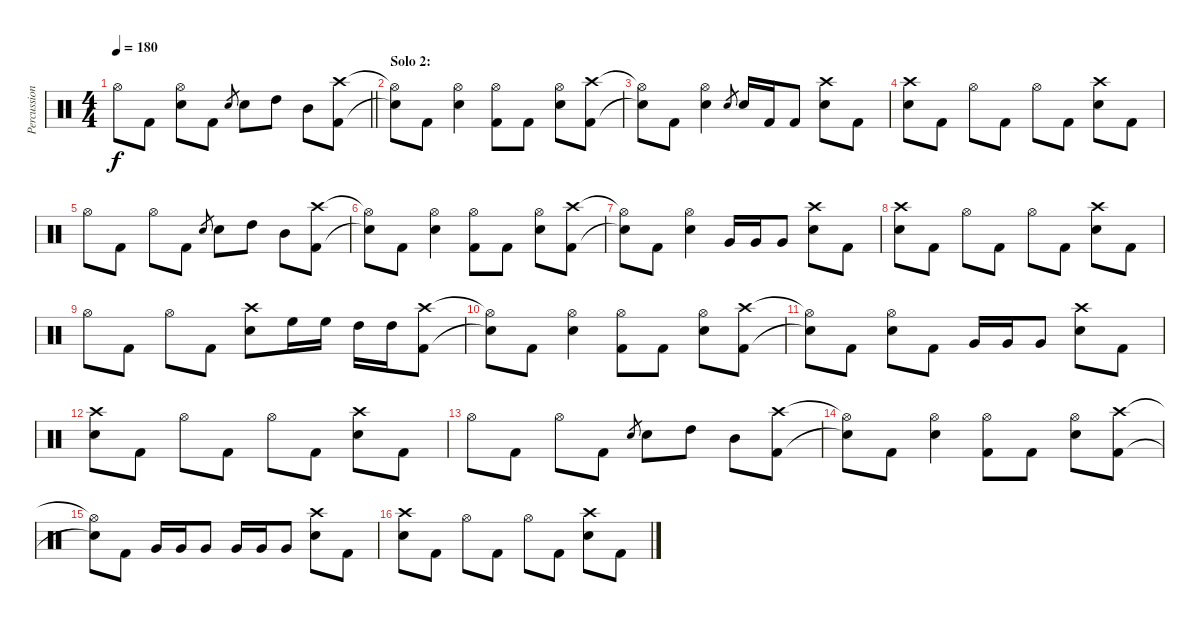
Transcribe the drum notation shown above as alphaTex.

\track ("Percussion" "Percussion") {instrument percussion}
\staff {score}
\articulation defaults
\ts (4 4)
\tempo 180
\clef neutral
\barLineRight lightlight
\ks c "Hi-Hat (open)".8{dy f} "Kick (hit) 2".8
("Hi-Hat (open)" "Electric Snare (hit)").8 "Kick (hit) 2".8 "Electric Snare (hit)".8{gr} "Electric Snare (hit)".8 "High Tom (hit)".8 "Mid Tom (hit)".8 ("Crash high (hit)" "Kick (hit) 2").8 |
\section ("" "Solo 2:")
("Hi-Hat (open)"{t} "Snare (hit)"{t}).8 "Kick (hit) 2".8 ("Hi-Hat (open)" "Electric Snare (hit)").4 ("Hi-Hat (open)" "Kick (hit) 2").8 "Kick (hit) 2".8 ("Hi-Hat (open)" "Electric Snare (hit)").8 ("Crash high (hit)" "Kick (hit) 2").8 |
("Hi-Hat (open)"{t} "Snare (hit)"{t}).8 "Kick (hit) 2".8 ("Hi-Hat (open)" "Electric Snare (hit)").4 "Electric Snare (hit)".8{gr} "Electric Snare (hit)".16 "Kick (hit) 2".16 "Kick (hit) 2".8 ("Crash high (hit)" "Electric Snare (hit)").8 "Kick (hit) 2".8 |
("Crash high (hit)" "Electric Snare (hit)").8 "Kick (hit) 2".8 "Hi-Hat (open)".8 "Kick (hit) 2".8 "Hi-Hat (open)".8 "Kick (hit) 2".8 ("Crash high (hit)" "Electric Snare (hit)").8 "Kick (hit) 2".8 |
"Hi-Hat (open)".8 "Kick (hit) 2".8 "Hi-Hat (open)".8 "Kick (hit) 2".8 "Electric Snare (hit)".8{gr} "Electric Snare (hit)".8 "High Tom (hit)".8 "Mid Tom (hit)".8 ("Crash high (hit)" "Kick (hit) 2").8 |
("Hi-Hat (open)"{t} "Snare (hit)"{t}).8 "Kick (hit) 2".8 ("Hi-Hat (open)" "Electric Snare (hit)").4 ("Hi-Hat (open)" "Kick (hit) 2").8 "Kick (hit) 2".8 ("Hi-Hat (open)" "Electric Snare (hit)").8 ("Crash high (hit)" "Kick (hit) 2").8 |
("Hi-Hat (open)"{t} "Snare (hit)"{t}).8 "Kick (hit) 2".8 ("Hi-Hat (open)" "Electric Snare (hit)").4 "Very Low Tom (hit)".16 "Very Low Tom (hit)".16 "Very Low Tom (hit)".8 ("Crash high (hit)" "Electric Snare (hit)").8 "Kick (hit) 2".8 |
("Crash high (hit)" "Electric Snare (hit)").8 "Kick (hit) 2".8 "Hi-Hat (open)".8 "Kick (hit) 2".8 "Hi-Hat (open)".8 "Kick (hit) 2".8 ("Crash high (hit)" "Electric Snare (hit)").8 "Kick (hit) 2".8 |
"Hi-Hat (open)".8 "Kick (hit) 2".8 "Hi-Hat (open)".8 "Kick (hit) 2".8 ("Crash high (hit)" "Electric Snare (hit)").8 "High Floor Tom (hit)".16 "High Floor Tom (hit)".16 "High Tom (hit)".16 "High Tom (hit)".16 ("Crash high (hit)" "Kick (hit) 2").8 |
("Hi-Hat (open)"{t} "Snare (hit)"{t}).8 "Kick (hit) 2".8 ("Hi-Hat (open)" "Electric Snare (hit)").4 ("Hi-Hat (open)" "Kick (hit) 2").8 "Kick (hit) 2".8 ("Hi-Hat (open)" "Electric Snare (hit)").8 ("Crash high (hit)" "Kick (hit) 2").8 |
("Hi-Hat (open)"{t} "Snare (hit)"{t}).8 "Kick (hit) 2".8 ("Hi-Hat (open)" "Electric Snare (hit)").8 "Kick (hit) 2".8 "Very Low Tom (hit)".16 "Very Low Tom (hit)".16 "Very Low Tom (hit)".8 ("Crash high (hit)" "Electric Snare (hit)").8 "Kick (hit) 2".8 |
("Crash high (hit)" "Electric Snare (hit)").8 "Kick (hit) 2".8 "Hi-Hat (open)".8 "Kick (hit) 2".8 "Hi-Hat (open)".8 "Kick (hit) 2".8 ("Crash high (hit)" "Electric Snare (hit)").8 "Kick (hit) 2".8 |
"Hi-Hat (open)".8 "Kick (hit) 2".8 "Hi-Hat (open)".8 "Kick (hit) 2".8 "Electric Snare (hit)".8{gr} "Electric Snare (hit)".8 "High Tom (hit)".8 "Mid Tom (hit)".8 ("Crash high (hit)" "Kick (hit) 2").8 |
("Hi-Hat (open)"{t} "Snare (hit)"{t}).8 "Kick (hit) 2".8 ("Hi-Hat (open)" "Electric Snare (hit)").4 ("Hi-Hat (open)" "Kick (hit) 2").8 "Kick (hit) 2".8 ("Hi-Hat (open)" "Electric Snare (hit)").8 ("Crash high (hit)" "Kick (hit) 2").8 |
("Hi-Hat (open)"{t} "Snare (hit)"{t}).8 "Kick (hit) 2".8 "Very Low Tom (hit)".16 "Very Low Tom (hit)".16 "Very Low Tom (hit)".8 "Very Low Tom (hit)".16 "Very Low Tom (hit)".16 "Very Low Tom (hit)".8 ("Crash high (hit)" "Electric Snare (hit)").8 "Kick (hit) 2".8 |
("Crash high (hit)" "Electric Snare (hit)").8 "Kick (hit) 2".8 "Hi-Hat (open)".8 "Kick (hit) 2".8 "Hi-Hat (open)".8 "Kick (hit) 2".8 ("Crash high (hit)" "Electric Snare (hit)").8 "Kick (hit) 2".8
